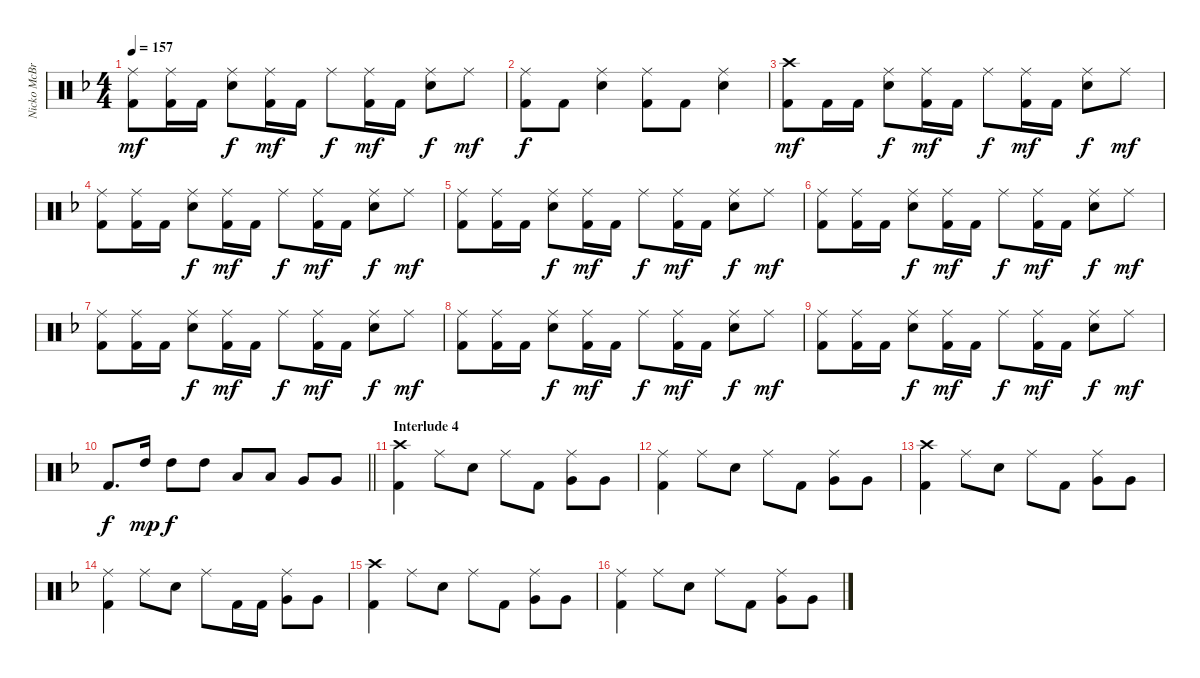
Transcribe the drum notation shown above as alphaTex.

\track ("Nicko McBrain" "Nicko McBr") {instrument percussion}
\staff {score}
\articulation defaults
\ts (4 4)
\tempo 157
\clef neutral
\ks f
("Ride (middle)" "Kick (hit) 2").8{dy mf} ("Ride (middle)" "Kick (hit) 2").16 "Kick (hit) 2".16 ("Ride (middle)" "Electric Snare (hit)").8{dy f} ("Ride (middle)" "Kick (hit) 2").16{dy mf} "Kick (hit) 2".16 "Ride (middle)".8{dy f} ("Ride (middle)" "Kick (hit) 2").16{dy mf} "Kick (hit) 2".16 ("Ride (middle)" "Electric Snare (hit)").8{dy f} "Ride (middle)".8{dy mf} |
("Ride (middle)" "Kick (hit) 2").8{dy f} "Kick (hit) 2".8 ("Ride (middle)" "Electric Snare (hit)").4 ("Ride (middle)" "Kick (hit) 2").8 "Kick (hit) 2".8 ("Ride (middle)" "Electric Snare (hit)").4 |
("Crash high (hit)" "Kick (hit) 2").8{dy mf} "Kick (hit) 2".16 "Kick (hit) 2".16 ("Ride (middle)" "Electric Snare (hit)").8{dy f} ("Ride (middle)" "Kick (hit) 2").16{dy mf} "Kick (hit) 2".16 "Ride (middle)".8{dy f} ("Ride (middle)" "Kick (hit) 2").16{dy mf} "Kick (hit) 2".16 ("Ride (middle)" "Electric Snare (hit)").8{dy f} "Ride (middle)".8{dy mf} |
("Ride (middle)" "Kick (hit) 2").8 ("Ride (middle)" "Kick (hit) 2").16 "Kick (hit) 2".16 ("Ride (middle)" "Electric Snare (hit)").8{dy f} ("Ride (middle)" "Kick (hit) 2").16{dy mf} "Kick (hit) 2".16 "Ride (middle)".8{dy f} ("Ride (middle)" "Kick (hit) 2").16{dy mf} "Kick (hit) 2".16 ("Ride (middle)" "Electric Snare (hit)").8{dy f} "Ride (middle)".8{dy mf} |
("Ride (middle)" "Kick (hit) 2").8 ("Ride (middle)" "Kick (hit) 2").16 "Kick (hit) 2".16 ("Ride (middle)" "Electric Snare (hit)").8{dy f} ("Ride (middle)" "Kick (hit) 2").16{dy mf} "Kick (hit) 2".16 "Ride (middle)".8{dy f} ("Ride (middle)" "Kick (hit) 2").16{dy mf} "Kick (hit) 2".16 ("Ride (middle)" "Electric Snare (hit)").8{dy f} "Ride (middle)".8{dy mf} |
("Ride (middle)" "Kick (hit) 2").8 ("Ride (middle)" "Kick (hit) 2").16 "Kick (hit) 2".16 ("Ride (middle)" "Electric Snare (hit)").8{dy f} ("Ride (middle)" "Kick (hit) 2").16{dy mf} "Kick (hit) 2".16 "Ride (middle)".8{dy f} ("Ride (middle)" "Kick (hit) 2").16{dy mf} "Kick (hit) 2".16 ("Ride (middle)" "Electric Snare (hit)").8{dy f} "Ride (middle)".8{dy mf} |
("Ride (middle)" "Kick (hit) 2").8 ("Ride (middle)" "Kick (hit) 2").16 "Kick (hit) 2".16 ("Ride (middle)" "Electric Snare (hit)").8{dy f} ("Ride (middle)" "Kick (hit) 2").16{dy mf} "Kick (hit) 2".16 "Ride (middle)".8{dy f} ("Ride (middle)" "Kick (hit) 2").16{dy mf} "Kick (hit) 2".16 ("Ride (middle)" "Electric Snare (hit)").8{dy f} "Ride (middle)".8{dy mf} |
("Ride (middle)" "Kick (hit) 2").8 ("Ride (middle)" "Kick (hit) 2").16 "Kick (hit) 2".16 ("Ride (middle)" "Electric Snare (hit)").8{dy f} ("Ride (middle)" "Kick (hit) 2").16{dy mf} "Kick (hit) 2".16 "Ride (middle)".8{dy f} ("Ride (middle)" "Kick (hit) 2").16{dy mf} "Kick (hit) 2".16 ("Ride (middle)" "Electric Snare (hit)").8{dy f} "Ride (middle)".8{dy mf} |
("Ride (middle)" "Kick (hit) 2").8 ("Ride (middle)" "Kick (hit) 2").16 "Kick (hit) 2".16 ("Ride (middle)" "Electric Snare (hit)").8{dy f} ("Ride (middle)" "Kick (hit) 2").16{dy mf} "Kick (hit) 2".16 "Ride (middle)".8{dy f} ("Ride (middle)" "Kick (hit) 2").16{dy mf} "Kick (hit) 2".16 ("Ride (middle)" "Electric Snare (hit)").8{dy f} "Ride (middle)".8{dy mf} |
\barLineRight lightlight "Kick (hit) 2".8{d dy f} "High Tom (hit)".16{dy mp} "High Tom (hit)".8{dy f} "High Tom (hit)".8 "Low Tom (hit)".8 "Low Tom (hit)".8 "Very Low Tom (hit)".8 "Very Low Tom (hit)".8
|
\section ("" "Interlude 4")
("Crash high (hit)" "Kick (hit) 2").4 "Ride (middle)".8 "Electric Snare (hit)".8 "Ride (middle)".8 "Kick (hit) 2".8 ("Ride (middle)" "Very Low Tom (hit)").8 "Very Low Tom (hit)".8 |
("Ride (middle)" "Kick (hit) 2").4 "Ride (middle)".8 "Electric Snare (hit)".8 "Ride (middle)".8 "Kick (hit) 2".8 ("Ride (middle)" "Very Low Tom (hit)").8 "Very Low Tom (hit)".8 |
("Crash high (hit)" "Kick (hit) 2").4 "Ride (middle)".8 "Electric Snare (hit)".8 "Ride (middle)".8 "Kick (hit) 2".8 ("Ride (middle)" "Very Low Tom (hit)").8 "Very Low Tom (hit)".8 |
("Ride (middle)" "Kick (hit) 2").4 "Ride (middle)".8 "Electric Snare (hit)".8 "Ride (middle)".8 "Kick (hit) 2".16 "Kick (hit) 2".16 ("Ride (middle)" "Very Low Tom (hit)").8 "Very Low Tom (hit)".8 |
("Crash high (hit)" "Kick (hit) 2").4 "Ride (middle)".8 "Electric Snare (hit)".8 "Ride (middle)".8 "Kick (hit) 2".8 ("Ride (middle)" "Very Low Tom (hit)").8 "Very Low Tom (hit)".8 |
("Ride (middle)" "Kick (hit) 2").4 "Ride (middle)".8 "Electric Snare (hit)".8 "Ride (middle)".8 "Kick (hit) 2".8 ("Ride (middle)" "Very Low Tom (hit)").8 "Very Low Tom (hit)".8
